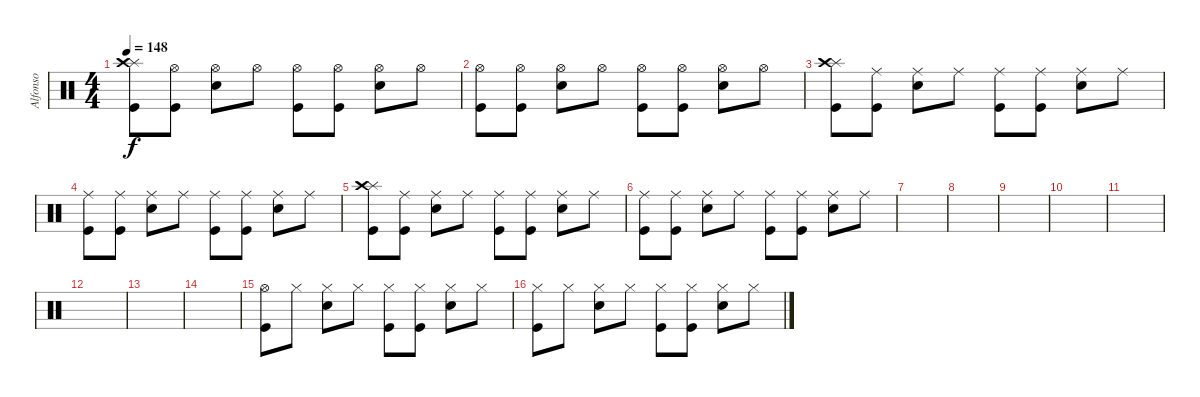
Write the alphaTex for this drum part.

\track ("Alfonso" "Alfonso") {instrument percussion}
\staff {score}
\articulation defaults
\ts (4 4)
\tempo 148
\clef neutral
\ks c
("Kick (hit)" "Splash (hit)" "Crash high (hit)").8{dy f} ("Kick (hit)" "Hi-Hat (open)").8 ("Snare (hit) 2" "Hi-Hat (open)").8 "Hi-Hat (open)".8 ("Kick (hit)" "Hi-Hat (open)").8 ("Kick (hit)" "Hi-Hat (open)").8 ("Snare (hit) 2" "Hi-Hat (open)").8 "Hi-Hat (open)".8 |
("Kick (hit)" "Hi-Hat (open)").8 ("Kick (hit)" "Hi-Hat (open)").8 ("Snare (hit) 2" "Hi-Hat (open)").8 "Hi-Hat (open)".8 ("Kick (hit)" "Hi-Hat (open)").8 ("Kick (hit)" "Hi-Hat (open)").8 ("Snare (hit) 2" "Hi-Hat (open)").8 "Hi-Hat (open)".8 |
("Kick (hit)" "Splash (hit)" "Crash high (hit)").8 ("Kick (hit)" "Ride (middle)").8 ("Snare (hit) 2" "Ride (middle)").8 "Ride (middle)".8 ("Kick (hit)" "Ride (middle)").8 ("Kick (hit)" "Ride (middle)").8 ("Snare (hit) 2" "Ride (middle)").8 "Ride (middle)".8 |
("Kick (hit)" "Ride (middle)").8 ("Kick (hit)" "Ride (middle)").8 ("Snare (hit) 2" "Ride (middle)").8 "Ride (middle)".8 ("Kick (hit)" "Ride (middle)").8 ("Kick (hit)" "Ride (middle)").8 ("Snare (hit) 2" "Ride (middle)").8 "Ride (middle)".8 |
("Kick (hit)" "Splash (hit)" "Crash high (hit)").8 ("Kick (hit)" "Ride (middle)").8 ("Snare (hit) 2" "Ride (middle)").8 "Ride (middle)".8 ("Kick (hit)" "Ride (middle)").8 ("Kick (hit)" "Ride (middle)").8 ("Snare (hit) 2" "Ride (middle)").8 "Ride (middle)".8 |
("Kick (hit)" "Ride (middle)").8 ("Kick (hit)" "Ride (middle)").8 ("Snare (hit) 2" "Ride (middle)").8 "Ride (middle)".8 ("Kick (hit)" "Ride (middle)").8 ("Kick (hit)" "Ride (middle)").8 ("Snare (hit) 2" "Ride (middle)").8 "Ride (middle)".8 |
|
|
|
|
|
|
|
|
("Kick (hit)" "Hi-Hat (open)").8 "Hi-Hat (closed)".8 ("Snare (hit) 2" "Hi-Hat (closed)").8 "Hi-Hat (closed)".8 ("Kick (hit)" "Hi-Hat (closed)").8 ("Kick (hit)" "Hi-Hat (closed)").8 ("Snare (hit) 2" "Hi-Hat (closed)").8 "Hi-Hat (closed)".8 |
("Kick (hit)" "Hi-Hat (closed)").8 "Hi-Hat (closed)".8 ("Snare (hit) 2" "Hi-Hat (closed)").8 "Hi-Hat (closed)".8 ("Kick (hit)" "Hi-Hat (closed)").8 ("Kick (hit)" "Hi-Hat (closed)").8 ("Snare (hit) 2" "Hi-Hat (closed)").8 "Hi-Hat (closed)".8
